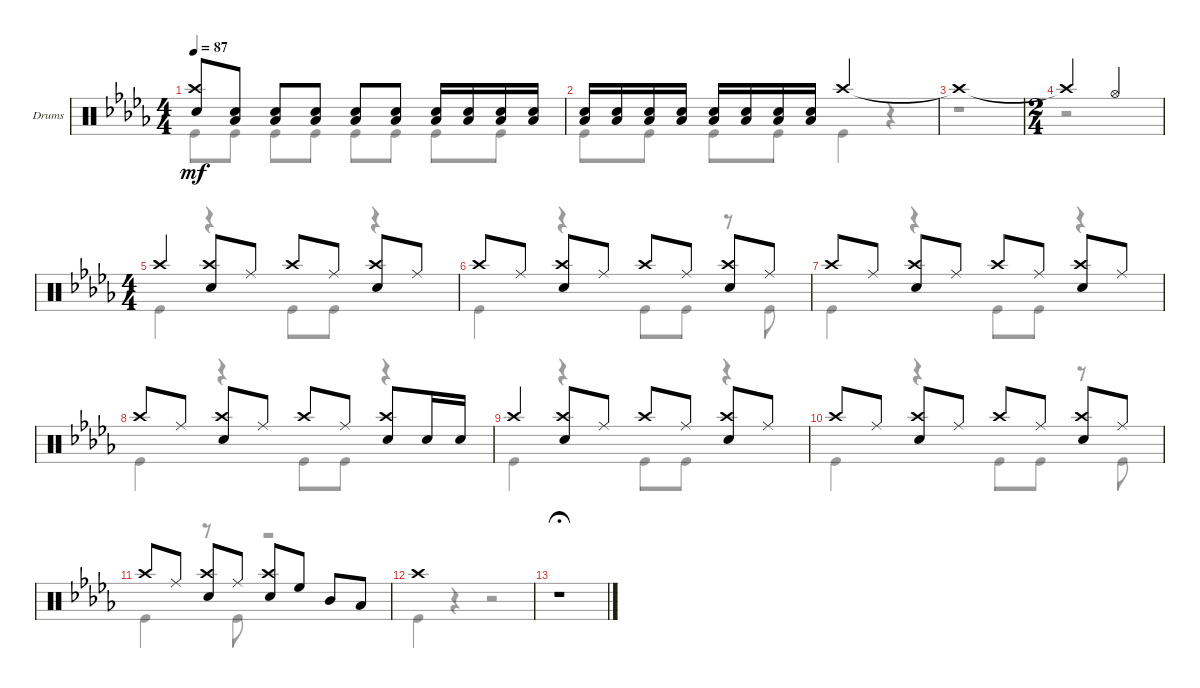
\bracketExtendMode groupsimilarinstruments
\firstSystemTrackNameOrientation horizontal
\otherSystemsTrackNameOrientation horizontal
\track ("Drums" "Drums") {multiBarRest instrument percussion}
\staff {score}
\articulation defaults
\voice
\ts (4 4)
\tempo 87
\clef neutral
\ks db
("Crash high (hit)" "Snare (hit) 2").8{dy mf} ("Snare (hit) 2" "Low Tom (hit)").8 ("Low Tom (hit)" "Snare (hit) 2").8 ("Snare (hit) 2" "Low Tom (hit)").8 ("Low Tom (hit)" "Snare (hit) 2").8 ("Snare (hit) 2" "Low Tom (hit)").8 ("Low Tom (hit)" "Snare (hit) 2").16 ("Snare (hit) 2" "Low Tom (hit)").16 ("Low Tom (hit)" "Snare (hit) 2").16 ("Snare (hit) 2" "Low Tom (hit)").16 |
("Low Tom (hit)" "Snare (hit) 2").16 ("Snare (hit) 2" "Low Tom (hit)").16 ("Low Tom (hit)" "Snare (hit) 2").16 ("Snare (hit) 2" "Low Tom (hit)").16 ("Low Tom (hit)" "Snare (hit) 2").16 ("Snare (hit) 2" "Low Tom (hit)").16 ("Low Tom (hit)" "Snare (hit) 2").16 ("Snare (hit) 2" "Low Tom (hit)").16 "Crash high (hit)".2 |
"Crash high (hit)"{t}.1 |
\ts (2 4)
"Crash high (hit)"{t}.4 "Hi-Hat (open)".4 |
\ts (4 4)
"Crash high (hit)".4 ("Crash high (hit)" "Snare (hit) 2").8 "Ride (middle)".8 "Crash high (hit)".8 "Ride (middle)".8 ("Crash high (hit)" "Snare (hit) 2").8 "Ride (middle)".8 |
"Crash high (hit)".8 "Ride (middle)".8 ("Crash high (hit)" "Snare (hit) 2").8 "Ride (middle)".8 "Crash high (hit)".8 "Ride (middle)".8 ("Crash high (hit)" "Snare (hit) 2").8 "Ride (middle)".8 |
"Crash high (hit)".8 "Ride (middle)".8 ("Crash high (hit)" "Snare (hit) 2").8 "Ride (middle)".8 "Crash high (hit)".8 "Ride (middle)".8 ("Crash high (hit)" "Snare (hit) 2").8 "Ride (middle)".8 |
"Crash high (hit)".8 "Ride (middle)".8 ("Crash high (hit)" "Snare (hit) 2").8 "Ride (middle)".8 "Crash high (hit)".8 "Ride (middle)".8 ("Crash high (hit)" "Snare (hit) 2").8 "Snare (hit) 2".16 "Snare (hit) 2".16 |
"Crash high (hit)".4 ("Crash high (hit)" "Snare (hit) 2").8 "Ride (middle)".8 "Crash high (hit)".8 "Ride (middle)".8 ("Crash high (hit)" "Snare (hit) 2").8 "Ride (middle)".8 |
"Crash high (hit)".8 "Ride (middle)".8 ("Crash high (hit)" "Snare (hit) 2").8 "Ride (middle)".8 "Crash high (hit)".8 "Ride (middle)".8 ("Crash high (hit)" "Snare (hit) 2").8 "Ride (middle)".8 |
"Crash high (hit)".8 "Ride (middle)".8 ("Crash high (hit)" "Snare (hit) 2").8 "Ride (middle)".8 ("Crash high (hit)" "Snare (hit) 2").8 "High Floor Tom (hit)".8 "Mid Tom (hit)".8 "Low Tom (hit)".8 |
"Crash high (hit)".1 |
r.1{fermata (medium 0.5)}
\voice
\clef neutral
\ottava regular
\simile none
\ks db "Kick (hit)".8{dy mf} "Kick (hit)".8 "Kick (hit)".8 "Kick (hit)".8 "Kick (hit)".8 "Kick (hit)".8 "Kick (hit)".8 "Kick (hit)".8
|
"Kick (hit)".8 "Kick (hit)".8 "Kick (hit)".8 "Kick (hit)".8 "Kick (hit)".4 r.4 |
r.1 |
r.2 |
"Kick (hit)".4 r.4 "Kick (hit)".8 "Kick (hit)".8 r.4 |
"Kick (hit)".4 r.4 "Kick (hit)".8 "Kick (hit)".8 r.8 "Kick (hit)".8 |
"Kick (hit)".4 r.4 "Kick (hit)".8 "Kick (hit)".8 r.4 |
"Kick (hit)".4 r.4 "Kick (hit)".8 "Kick (hit)".8 r.4 |
"Kick (hit)".4 r.4 "Kick (hit)".8 "Kick (hit)".8 r.4 |
"Kick (hit)".4 r.4 "Kick (hit)".8 "Kick (hit)".8 r.8 "Kick (hit)".8 |
"Kick (hit)".4 r.8 "Kick (hit)".8 r.2 |
"Kick (hit)".4 r.4 r.2 |
